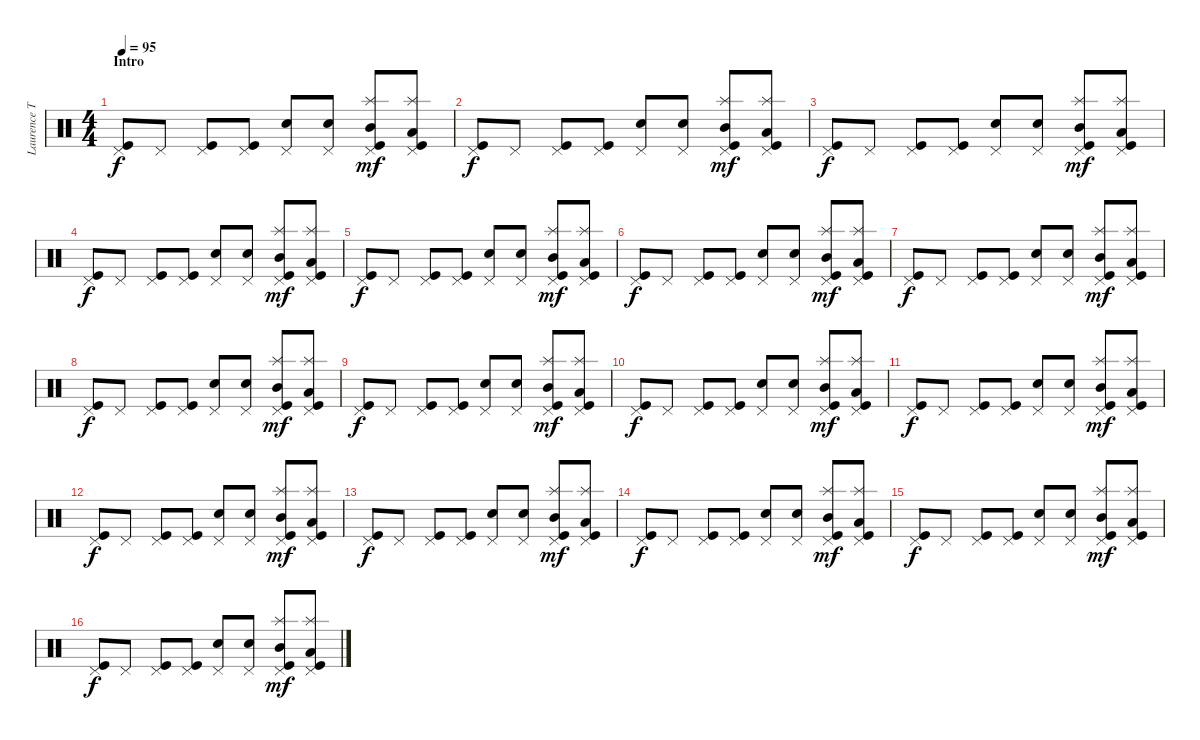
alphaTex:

\track ("Laurence Tolhurst (drums)" "Laurence T") {instrument percussion}
\staff {score}
\articulation defaults
\ts (4 4)
\section ("" "Intro")
\tempo 95
\clef neutral
\ks c
("Pedal Hi-Hat (hit)" "Kick (hit)").8{dy f} "Pedal Hi-Hat (hit)".8 ("Pedal Hi-Hat (hit)" "Kick (hit)").8 ("Pedal Hi-Hat (hit)" "Kick (hit)").8 ("Pedal Hi-Hat (hit)" "Snare (hit) 2").8 ("Pedal Hi-Hat (hit)" "Snare (hit) 2").8 ("Splash (hit)" "Mid Tom (hit)" "Pedal Hi-Hat (hit)" "Kick (hit)").8{dy mf} ("Splash (hit)" "Low Tom (hit)" "Pedal Hi-Hat (hit)" "Kick (hit)").8 |
("Pedal Hi-Hat (hit)" "Kick (hit)").8{dy f} "Pedal Hi-Hat (hit)".8 ("Pedal Hi-Hat (hit)" "Kick (hit)").8 ("Pedal Hi-Hat (hit)" "Kick (hit)").8 ("Pedal Hi-Hat (hit)" "Snare (hit) 2").8 ("Pedal Hi-Hat (hit)" "Snare (hit) 2").8 ("Splash (hit)" "Mid Tom (hit)" "Pedal Hi-Hat (hit)" "Kick (hit)").8{dy mf} ("Splash (hit)" "Low Tom (hit)" "Pedal Hi-Hat (hit)" "Kick (hit)").8 |
("Pedal Hi-Hat (hit)" "Kick (hit)").8{dy f} "Pedal Hi-Hat (hit)".8 ("Pedal Hi-Hat (hit)" "Kick (hit)").8 ("Pedal Hi-Hat (hit)" "Kick (hit)").8 ("Pedal Hi-Hat (hit)" "Snare (hit) 2").8 ("Pedal Hi-Hat (hit)" "Snare (hit) 2").8 ("Splash (hit)" "Mid Tom (hit)" "Pedal Hi-Hat (hit)" "Kick (hit)").8{dy mf} ("Splash (hit)" "Low Tom (hit)" "Pedal Hi-Hat (hit)" "Kick (hit)").8 |
("Pedal Hi-Hat (hit)" "Kick (hit)").8{dy f} "Pedal Hi-Hat (hit)".8 ("Pedal Hi-Hat (hit)" "Kick (hit)").8 ("Pedal Hi-Hat (hit)" "Kick (hit)").8 ("Pedal Hi-Hat (hit)" "Snare (hit) 2").8 ("Pedal Hi-Hat (hit)" "Snare (hit) 2").8 ("Splash (hit)" "Mid Tom (hit)" "Pedal Hi-Hat (hit)" "Kick (hit)").8{dy mf} ("Splash (hit)" "Low Tom (hit)" "Pedal Hi-Hat (hit)" "Kick (hit)").8 |
("Pedal Hi-Hat (hit)" "Kick (hit)").8{dy f} "Pedal Hi-Hat (hit)".8 ("Pedal Hi-Hat (hit)" "Kick (hit)").8 ("Pedal Hi-Hat (hit)" "Kick (hit)").8 ("Pedal Hi-Hat (hit)" "Snare (hit) 2").8 ("Pedal Hi-Hat (hit)" "Snare (hit) 2").8 ("Splash (hit)" "Mid Tom (hit)" "Pedal Hi-Hat (hit)" "Kick (hit)").8{dy mf} ("Splash (hit)" "Low Tom (hit)" "Pedal Hi-Hat (hit)" "Kick (hit)").8 |
("Pedal Hi-Hat (hit)" "Kick (hit)").8{dy f} "Pedal Hi-Hat (hit)".8 ("Pedal Hi-Hat (hit)" "Kick (hit)").8 ("Pedal Hi-Hat (hit)" "Kick (hit)").8 ("Pedal Hi-Hat (hit)" "Snare (hit) 2").8 ("Pedal Hi-Hat (hit)" "Snare (hit) 2").8 ("Splash (hit)" "Mid Tom (hit)" "Pedal Hi-Hat (hit)" "Kick (hit)").8{dy mf} ("Splash (hit)" "Low Tom (hit)" "Pedal Hi-Hat (hit)" "Kick (hit)").8 |
("Pedal Hi-Hat (hit)" "Kick (hit)").8{dy f} "Pedal Hi-Hat (hit)".8 ("Pedal Hi-Hat (hit)" "Kick (hit)").8 ("Pedal Hi-Hat (hit)" "Kick (hit)").8 ("Pedal Hi-Hat (hit)" "Snare (hit) 2").8 ("Pedal Hi-Hat (hit)" "Snare (hit) 2").8 ("Splash (hit)" "Mid Tom (hit)" "Pedal Hi-Hat (hit)" "Kick (hit)").8{dy mf} ("Splash (hit)" "Low Tom (hit)" "Pedal Hi-Hat (hit)" "Kick (hit)").8 |
("Pedal Hi-Hat (hit)" "Kick (hit)").8{dy f} "Pedal Hi-Hat (hit)".8 ("Pedal Hi-Hat (hit)" "Kick (hit)").8 ("Pedal Hi-Hat (hit)" "Kick (hit)").8 ("Pedal Hi-Hat (hit)" "Snare (hit) 2").8 ("Pedal Hi-Hat (hit)" "Snare (hit) 2").8 ("Splash (hit)" "Mid Tom (hit)" "Pedal Hi-Hat (hit)" "Kick (hit)").8{dy mf} ("Splash (hit)" "Low Tom (hit)" "Pedal Hi-Hat (hit)" "Kick (hit)").8 |
("Pedal Hi-Hat (hit)" "Kick (hit)").8{dy f} "Pedal Hi-Hat (hit)".8 ("Pedal Hi-Hat (hit)" "Kick (hit)").8 ("Pedal Hi-Hat (hit)" "Kick (hit)").8 ("Pedal Hi-Hat (hit)" "Snare (hit) 2").8 ("Pedal Hi-Hat (hit)" "Snare (hit) 2").8 ("Splash (hit)" "Mid Tom (hit)" "Pedal Hi-Hat (hit)" "Kick (hit)").8{dy mf} ("Splash (hit)" "Low Tom (hit)" "Pedal Hi-Hat (hit)" "Kick (hit)").8 |
("Pedal Hi-Hat (hit)" "Kick (hit)").8{dy f} "Pedal Hi-Hat (hit)".8 ("Pedal Hi-Hat (hit)" "Kick (hit)").8 ("Pedal Hi-Hat (hit)" "Kick (hit)").8 ("Pedal Hi-Hat (hit)" "Snare (hit) 2").8 ("Pedal Hi-Hat (hit)" "Snare (hit) 2").8 ("Splash (hit)" "Mid Tom (hit)" "Pedal Hi-Hat (hit)" "Kick (hit)").8{dy mf} ("Splash (hit)" "Low Tom (hit)" "Pedal Hi-Hat (hit)" "Kick (hit)").8 |
("Pedal Hi-Hat (hit)" "Kick (hit)").8{dy f} "Pedal Hi-Hat (hit)".8 ("Pedal Hi-Hat (hit)" "Kick (hit)").8 ("Pedal Hi-Hat (hit)" "Kick (hit)").8 ("Pedal Hi-Hat (hit)" "Snare (hit) 2").8 ("Pedal Hi-Hat (hit)" "Snare (hit) 2").8 ("Splash (hit)" "Mid Tom (hit)" "Pedal Hi-Hat (hit)" "Kick (hit)").8{dy mf} ("Splash (hit)" "Low Tom (hit)" "Pedal Hi-Hat (hit)" "Kick (hit)").8 |
("Pedal Hi-Hat (hit)" "Kick (hit)").8{dy f} "Pedal Hi-Hat (hit)".8 ("Pedal Hi-Hat (hit)" "Kick (hit)").8 ("Pedal Hi-Hat (hit)" "Kick (hit)").8 ("Pedal Hi-Hat (hit)" "Snare (hit) 2").8 ("Pedal Hi-Hat (hit)" "Snare (hit) 2").8 ("Splash (hit)" "Mid Tom (hit)" "Pedal Hi-Hat (hit)" "Kick (hit)").8{dy mf} ("Splash (hit)" "Low Tom (hit)" "Pedal Hi-Hat (hit)" "Kick (hit)").8 |
("Pedal Hi-Hat (hit)" "Kick (hit)").8{dy f} "Pedal Hi-Hat (hit)".8 ("Pedal Hi-Hat (hit)" "Kick (hit)").8 ("Pedal Hi-Hat (hit)" "Kick (hit)").8 ("Pedal Hi-Hat (hit)" "Snare (hit) 2").8 ("Pedal Hi-Hat (hit)" "Snare (hit) 2").8 ("Splash (hit)" "Mid Tom (hit)" "Pedal Hi-Hat (hit)" "Kick (hit)").8{dy mf} ("Splash (hit)" "Low Tom (hit)" "Pedal Hi-Hat (hit)" "Kick (hit)").8 |
("Pedal Hi-Hat (hit)" "Kick (hit)").8{dy f} "Pedal Hi-Hat (hit)".8 ("Pedal Hi-Hat (hit)" "Kick (hit)").8 ("Pedal Hi-Hat (hit)" "Kick (hit)").8 ("Pedal Hi-Hat (hit)" "Snare (hit) 2").8 ("Pedal Hi-Hat (hit)" "Snare (hit) 2").8 ("Splash (hit)" "Mid Tom (hit)" "Pedal Hi-Hat (hit)" "Kick (hit)").8{dy mf} ("Splash (hit)" "Low Tom (hit)" "Pedal Hi-Hat (hit)" "Kick (hit)").8 |
("Pedal Hi-Hat (hit)" "Kick (hit)").8{dy f} "Pedal Hi-Hat (hit)".8 ("Pedal Hi-Hat (hit)" "Kick (hit)").8 ("Pedal Hi-Hat (hit)" "Kick (hit)").8 ("Pedal Hi-Hat (hit)" "Snare (hit) 2").8 ("Pedal Hi-Hat (hit)" "Snare (hit) 2").8 ("Splash (hit)" "Mid Tom (hit)" "Pedal Hi-Hat (hit)" "Kick (hit)").8{dy mf} ("Splash (hit)" "Low Tom (hit)" "Pedal Hi-Hat (hit)" "Kick (hit)").8 |
("Pedal Hi-Hat (hit)" "Kick (hit)").8{dy f} "Pedal Hi-Hat (hit)".8 ("Pedal Hi-Hat (hit)" "Kick (hit)").8 ("Pedal Hi-Hat (hit)" "Kick (hit)").8 ("Pedal Hi-Hat (hit)" "Snare (hit) 2").8 ("Pedal Hi-Hat (hit)" "Snare (hit) 2").8 ("Splash (hit)" "Mid Tom (hit)" "Pedal Hi-Hat (hit)" "Kick (hit)").8{dy mf} ("Splash (hit)" "Low Tom (hit)" "Pedal Hi-Hat (hit)" "Kick (hit)").8
